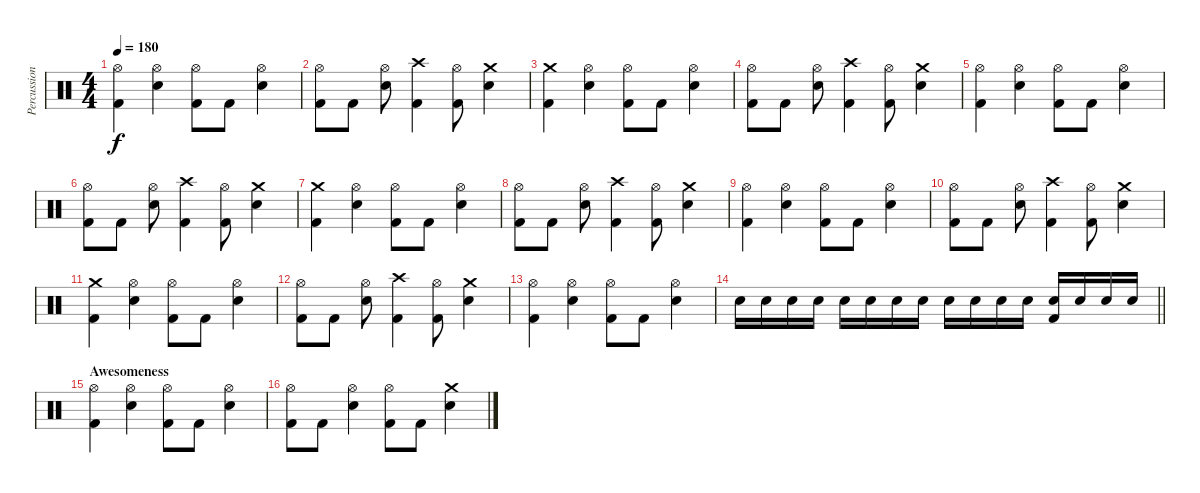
\track ("Percussion" "Percussion") {instrument percussion}
\staff {score}
\articulation defaults
\ts (4 4)
\tempo 180
\clef neutral
\ks c
("Hi-Hat (open)" "Kick (hit) 2").4{dy f} ("Hi-Hat (open)" "Snare (hit) 2").4 ("Hi-Hat (open)" "Kick (hit) 2").8 "Kick (hit) 2".8 ("Hi-Hat (open)" "Snare (hit) 2").4 |
("Hi-Hat (open)" "Kick (hit) 2").8 "Kick (hit) 2".8 ("Hi-Hat (open)" "Snare (hit) 2").8 ("Crash high (hit)" "Kick (hit) 2").4 ("Hi-Hat (open)" "Kick (hit) 2").8 ("Crash medium (hit)" "Snare (hit) 2").4 |
("Crash medium (hit)" "Kick (hit) 2").4 ("Hi-Hat (open)" "Snare (hit) 2").4 ("Hi-Hat (open)" "Kick (hit) 2").8 "Kick (hit) 2".8 ("Hi-Hat (open)" "Snare (hit) 2").4 |
("Hi-Hat (open)" "Kick (hit) 2").8 "Kick (hit) 2".8 ("Hi-Hat (open)" "Snare (hit) 2").8 ("Crash high (hit)" "Kick (hit) 2").4 ("Hi-Hat (open)" "Kick (hit) 2").8 ("Crash medium (hit)" "Snare (hit) 2").4 |
("Hi-Hat (open)" "Kick (hit) 2").4 ("Hi-Hat (open)" "Snare (hit) 2").4 ("Hi-Hat (open)" "Kick (hit) 2").8 "Kick (hit) 2".8 ("Hi-Hat (open)" "Snare (hit) 2").4 |
("Hi-Hat (open)" "Kick (hit) 2").8 "Kick (hit) 2".8 ("Hi-Hat (open)" "Snare (hit) 2").8 ("Crash high (hit)" "Kick (hit) 2").4 ("Hi-Hat (open)" "Kick (hit) 2").8 ("Crash medium (hit)" "Snare (hit) 2").4 |
("Crash medium (hit)" "Kick (hit) 2").4 ("Hi-Hat (open)" "Snare (hit) 2").4 ("Hi-Hat (open)" "Kick (hit) 2").8 "Kick (hit) 2".8 ("Hi-Hat (open)" "Snare (hit) 2").4 |
("Hi-Hat (open)" "Kick (hit) 2").8 "Kick (hit) 2".8 ("Hi-Hat (open)" "Snare (hit) 2").8 ("Crash high (hit)" "Kick (hit) 2").4 ("Hi-Hat (open)" "Kick (hit) 2").8 ("Crash medium (hit)" "Snare (hit) 2").4 |
("Hi-Hat (open)" "Kick (hit) 2").4 ("Hi-Hat (open)" "Snare (hit) 2").4 ("Hi-Hat (open)" "Kick (hit) 2").8 "Kick (hit) 2".8 ("Hi-Hat (open)" "Snare (hit) 2").4 |
("Hi-Hat (open)" "Kick (hit) 2").8 "Kick (hit) 2".8 ("Hi-Hat (open)" "Snare (hit) 2").8 ("Crash high (hit)" "Kick (hit) 2").4 ("Hi-Hat (open)" "Kick (hit) 2").8 ("Crash medium (hit)" "Snare (hit) 2").4 |
("Crash medium (hit)" "Kick (hit) 2").4 ("Hi-Hat (open)" "Snare (hit) 2").4 ("Hi-Hat (open)" "Kick (hit) 2").8 "Kick (hit) 2".8 ("Hi-Hat (open)" "Snare (hit) 2").4 |
("Hi-Hat (open)" "Kick (hit) 2").8 "Kick (hit) 2".8 ("Hi-Hat (open)" "Snare (hit) 2").8 ("Crash high (hit)" "Kick (hit) 2").4 ("Hi-Hat (open)" "Kick (hit) 2").8 ("Crash medium (hit)" "Snare (hit) 2").4 |
("Hi-Hat (open)" "Kick (hit) 2").4 ("Hi-Hat (open)" "Snare (hit) 2").4 ("Hi-Hat (open)" "Kick (hit) 2").8 "Kick (hit) 2".8 ("Hi-Hat (open)" "Snare (hit) 2").4 |
\barLineRight lightlight "Snare (hit) 2".16 "Snare (hit) 2".16 "Snare (hit) 2".16 "Snare (hit) 2".16 "Snare (hit) 2".16 "Snare (hit) 2".16 "Snare (hit) 2".16 "Snare (hit) 2".16 "Snare (hit) 2".16 "Snare (hit) 2".16 "Snare (hit) 2".16 "Snare (hit) 2".16
("Snare (hit) 2" "Kick (hit) 2").16 "Snare (hit) 2".16 "Snare (hit) 2".16 "Snare (hit) 2".16 |
\section ("" "Awesomeness")
("Hi-Hat (open)" "Kick (hit) 2").4 ("Hi-Hat (open)" "Snare (hit) 2").4 ("Hi-Hat (open)" "Kick (hit) 2").8 "Kick (hit) 2".8 ("Hi-Hat (open)" "Snare (hit) 2").4 |
("Hi-Hat (open)" "Kick (hit) 2").8 "Kick (hit) 2".8 ("Hi-Hat (open)" "Snare (hit) 2").4 ("Hi-Hat (open)" "Kick (hit) 2").8 "Kick (hit) 2".8 ("Crash medium (hit)" "Snare (hit) 2").4
